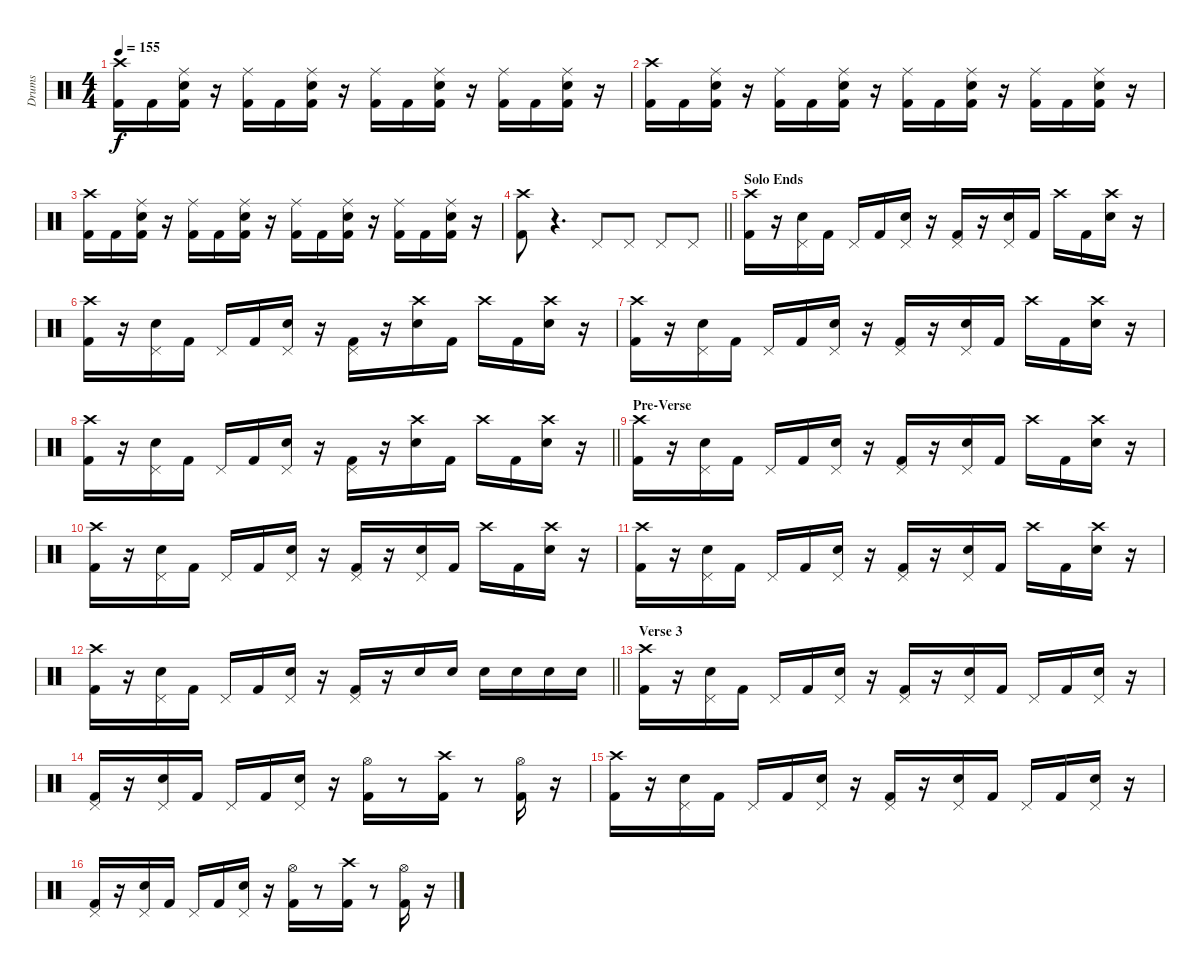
\track ("Drums" "Drums") {instrument percussion}
\staff {score}
\articulation defaults
\ts (4 4)
\tempo 155
\clef neutral
\ks c
("Crash high (hit)" "Kick (hit) 2").16{dy f} "Kick (hit) 2".16 ("Ride (middle)" "Snare (hit) 2" "Kick (hit) 2").16 r.16 ("Ride (middle)" "Kick (hit) 2").16 "Kick (hit) 2".16 ("Ride (middle)" "Snare (hit) 2" "Kick (hit) 2").16 r.16 ("Ride (middle)" "Kick (hit) 2").16 "Kick (hit) 2".16 ("Ride (middle)" "Snare (hit) 2" "Kick (hit) 2").16 r.16 ("Ride (middle)" "Kick (hit) 2").16 "Kick (hit) 2".16 ("Ride (middle)" "Snare (hit) 2" "Kick (hit) 2").16 r.16 |
("Crash high (hit)" "Kick (hit) 2").16 "Kick (hit) 2".16 ("Ride (middle)" "Snare (hit) 2" "Kick (hit) 2").16 r.16 ("Ride (middle)" "Kick (hit) 2").16 "Kick (hit) 2".16 ("Ride (middle)" "Snare (hit) 2" "Kick (hit) 2").16 r.16 ("Ride (middle)" "Kick (hit) 2").16 "Kick (hit) 2".16 ("Ride (middle)" "Snare (hit) 2" "Kick (hit) 2").16 r.16 ("Ride (middle)" "Kick (hit) 2").16 "Kick (hit) 2".16 ("Ride (middle)" "Snare (hit) 2" "Kick (hit) 2").16 r.16 |
("Crash high (hit)" "Kick (hit) 2").16 "Kick (hit) 2".16 ("Ride (middle)" "Snare (hit) 2" "Kick (hit) 2").16 r.16 ("Ride (middle)" "Kick (hit) 2").16 "Kick (hit) 2".16 ("Ride (middle)" "Snare (hit) 2" "Kick (hit) 2").16 r.16 ("Ride (middle)" "Kick (hit) 2").16 "Kick (hit) 2".16 ("Ride (middle)" "Snare (hit) 2" "Kick (hit) 2").16 r.16 ("Ride (middle)" "Kick (hit) 2").16 "Kick (hit) 2".16 ("Ride (middle)" "Snare (hit) 2" "Kick (hit) 2").16 r.16 |
\barLineRight lightlight
("Crash high (hit)" "Kick (hit) 2").8 r.4{d} "Pedal Hi-Hat (hit)".8 "Pedal Hi-Hat (hit)".8 "Pedal Hi-Hat (hit)".8 "Pedal Hi-Hat (hit)".8 |
\section ("" "Solo Ends")
("Crash high (hit)" "Kick (hit) 2").16 r.16 ("Pedal Hi-Hat (hit)" "Snare (hit) 2").16 "Kick (hit) 2".16 "Pedal Hi-Hat (hit)".16 "Kick (hit) 2".16 ("Pedal Hi-Hat (hit)" "Snare (hit) 2").16 r.16 ("Pedal Hi-Hat (hit)" "Kick (hit) 2").16 r.16 ("Pedal Hi-Hat (hit)" "Snare (hit) 2").16 "Kick (hit) 2".16 "Crash high (hit)".16 "Kick (hit) 2".16 ("Crash high (hit)" "Snare (hit) 2").16 r.16 |
("Crash high (hit)" "Kick (hit) 2").16 r.16 ("Pedal Hi-Hat (hit)" "Snare (hit) 2").16 "Kick (hit) 2".16 "Pedal Hi-Hat (hit)".16 "Kick (hit) 2".16 ("Pedal Hi-Hat (hit)" "Snare (hit) 2").16 r.16 ("Pedal Hi-Hat (hit)" "Kick (hit) 2").16 r.16 ("Crash high (hit)" "Snare (hit) 2").16 "Kick (hit) 2".16 "Crash high (hit)".16 "Kick (hit) 2".16 ("Crash high (hit)" "Snare (hit) 2").16 r.16 |
("Crash high (hit)" "Kick (hit) 2").16 r.16 ("Pedal Hi-Hat (hit)" "Snare (hit) 2").16 "Kick (hit) 2".16 "Pedal Hi-Hat (hit)".16 "Kick (hit) 2".16 ("Pedal Hi-Hat (hit)" "Snare (hit) 2").16 r.16 ("Pedal Hi-Hat (hit)" "Kick (hit) 2").16 r.16 ("Pedal Hi-Hat (hit)" "Snare (hit) 2").16 "Kick (hit) 2".16 "Crash high (hit)".16 "Kick (hit) 2".16 ("Crash high (hit)" "Snare (hit) 2").16 r.16 |
\barLineRight lightlight
("Crash high (hit)" "Kick (hit) 2").16 r.16 ("Pedal Hi-Hat (hit)" "Snare (hit) 2").16 "Kick (hit) 2".16 "Pedal Hi-Hat (hit)".16 "Kick (hit) 2".16 ("Pedal Hi-Hat (hit)" "Snare (hit) 2").16 r.16 ("Pedal Hi-Hat (hit)" "Kick (hit) 2").16 r.16 ("Crash high (hit)" "Snare (hit) 2").16 "Kick (hit) 2".16 "Crash high (hit)".16 "Kick (hit) 2".16 ("Crash high (hit)" "Snare (hit) 2").16 r.16 |
\section ("" "Pre-Verse")
("Crash high (hit)" "Kick (hit) 2").16 r.16 ("Pedal Hi-Hat (hit)" "Snare (hit) 2").16 "Kick (hit) 2".16 "Pedal Hi-Hat (hit)".16 "Kick (hit) 2".16 ("Pedal Hi-Hat (hit)" "Snare (hit) 2").16 r.16 ("Pedal Hi-Hat (hit)" "Kick (hit) 2").16 r.16 ("Pedal Hi-Hat (hit)" "Snare (hit) 2").16 "Kick (hit) 2".16 "Crash high (hit)".16 "Kick (hit) 2".16 ("Crash high (hit)" "Snare (hit) 2").16 r.16 |
("Crash high (hit)" "Kick (hit) 2").16 r.16 ("Pedal Hi-Hat (hit)" "Snare (hit) 2").16 "Kick (hit) 2".16 "Pedal Hi-Hat (hit)".16 "Kick (hit) 2".16 ("Pedal Hi-Hat (hit)" "Snare (hit) 2").16 r.16 ("Pedal Hi-Hat (hit)" "Kick (hit) 2").16 r.16 ("Pedal Hi-Hat (hit)" "Snare (hit) 2").16 "Kick (hit) 2".16 "Crash high (hit)".16 "Kick (hit) 2".16 ("Crash high (hit)" "Snare (hit) 2").16 r.16 |
("Crash high (hit)" "Kick (hit) 2").16 r.16 ("Pedal Hi-Hat (hit)" "Snare (hit) 2").16 "Kick (hit) 2".16 "Pedal Hi-Hat (hit)".16 "Kick (hit) 2".16 ("Pedal Hi-Hat (hit)" "Snare (hit) 2").16 r.16 ("Pedal Hi-Hat (hit)" "Kick (hit) 2").16 r.16 ("Pedal Hi-Hat (hit)" "Snare (hit) 2").16 "Kick (hit) 2".16 "Crash high (hit)".16 "Kick (hit) 2".16 ("Crash high (hit)" "Snare (hit) 2").16 r.16 |
\barLineRight lightlight
("Crash high (hit)" "Kick (hit) 2").16 r.16 ("Pedal Hi-Hat (hit)" "Snare (hit) 2").16 "Kick (hit) 2".16 "Pedal Hi-Hat (hit)".16 "Kick (hit) 2".16 ("Pedal Hi-Hat (hit)" "Snare (hit) 2").16 r.16 ("Pedal Hi-Hat (hit)" "Kick (hit) 2").16 r.16 "Snare (hit) 2".16 "Snare (hit) 2".16 "Snare (hit) 2".16 "Snare (hit) 2".16 "Snare (hit) 2".16 "Snare (hit) 2".16 |
\section ("" "Verse 3")
("Crash high (hit)" "Kick (hit) 2").16 r.16 ("Pedal Hi-Hat (hit)" "Snare (hit) 2").16 "Kick (hit) 2".16 "Pedal Hi-Hat (hit)".16 "Kick (hit) 2".16 ("Pedal Hi-Hat (hit)" "Snare (hit) 2").16 r.16 ("Pedal Hi-Hat (hit)" "Kick (hit) 2").16 r.16 ("Pedal Hi-Hat (hit)" "Snare (hit) 2").16 "Kick (hit) 2".16 "Pedal Hi-Hat (hit)".16 "Kick (hit) 2".16 ("Pedal Hi-Hat (hit)" "Snare (hit) 2").16 r.16 |
("Pedal Hi-Hat (hit)" "Kick (hit) 2").16 r.16 ("Pedal Hi-Hat (hit)" "Snare (hit) 2").16 "Kick (hit) 2".16 "Pedal Hi-Hat (hit)".16 "Kick (hit) 2".16 ("Pedal Hi-Hat (hit)" "Snare (hit) 2").16 r.16 ("Hi-Hat (open)" "Kick (hit) 2").16 r.8 ("Crash high (hit)" "Kick (hit) 2").16 r.8 ("Hi-Hat (open)" "Kick (hit) 2").16 r.16 |
("Crash high (hit)" "Kick (hit) 2").16 r.16 ("Pedal Hi-Hat (hit)" "Snare (hit) 2").16 "Kick (hit) 2".16 "Pedal Hi-Hat (hit)".16 "Kick (hit) 2".16 ("Pedal Hi-Hat (hit)" "Snare (hit) 2").16 r.16 ("Pedal Hi-Hat (hit)" "Kick (hit) 2").16 r.16 ("Pedal Hi-Hat (hit)" "Snare (hit) 2").16 "Kick (hit) 2".16 "Pedal Hi-Hat (hit)".16 "Kick (hit) 2".16 ("Pedal Hi-Hat (hit)" "Snare (hit) 2").16 r.16 |
("Pedal Hi-Hat (hit)" "Kick (hit) 2").16 r.16 ("Pedal Hi-Hat (hit)" "Snare (hit) 2").16 "Kick (hit) 2".16 "Pedal Hi-Hat (hit)".16 "Kick (hit) 2".16 ("Pedal Hi-Hat (hit)" "Snare (hit) 2").16 r.16 ("Hi-Hat (open)" "Kick (hit) 2").16 r.8 ("Crash high (hit)" "Kick (hit) 2").16 r.8 ("Hi-Hat (open)" "Kick (hit) 2").16 r.16
